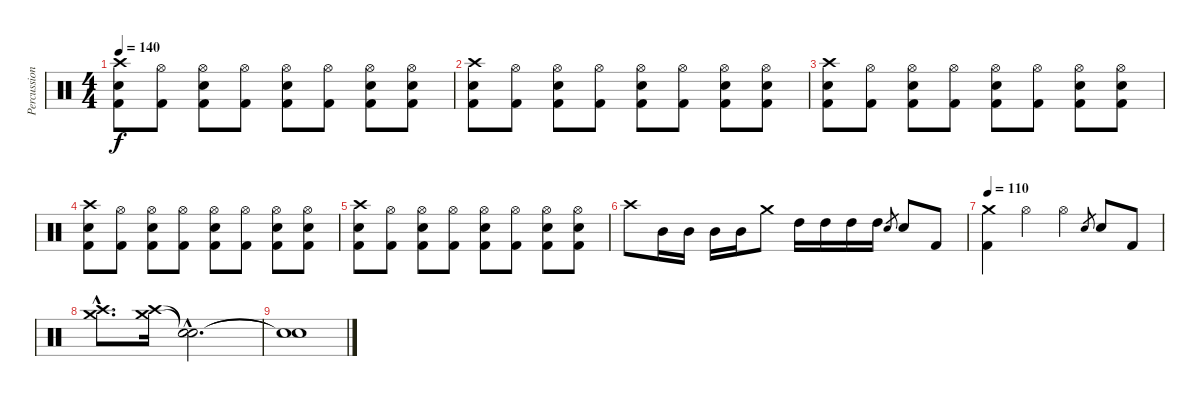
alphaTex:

\track ("Percussion" "Percussion") {instrument percussion}
\staff {score}
\articulation defaults
\ts (4 4)
\tempo 140
\clef neutral
\ks c
("Crash high (hit)" "Snare (hit) 2" "Kick (hit) 2").8{dy f} ("Hi-Hat (open)" "Kick (hit) 2").8 ("Hi-Hat (open)" "Snare (hit) 2" "Kick (hit) 2").8 ("Hi-Hat (open)" "Kick (hit) 2").8 ("Hi-Hat (open)" "Snare (hit) 2" "Kick (hit) 2").8 ("Hi-Hat (open)" "Kick (hit) 2").8 ("Hi-Hat (open)" "Snare (hit) 2" "Kick (hit) 2").8 ("Hi-Hat (open)" "Snare (hit) 2" "Kick (hit) 2").8 |
("Crash high (hit)" "Snare (hit) 2" "Kick (hit) 2").8 ("Hi-Hat (open)" "Kick (hit) 2").8 ("Hi-Hat (open)" "Snare (hit) 2" "Kick (hit) 2").8 ("Hi-Hat (open)" "Kick (hit) 2").8 ("Hi-Hat (open)" "Snare (hit) 2" "Kick (hit) 2").8 ("Hi-Hat (open)" "Kick (hit) 2").8 ("Hi-Hat (open)" "Snare (hit) 2" "Kick (hit) 2").8 ("Hi-Hat (open)" "Snare (hit) 2" "Kick (hit) 2").8 |
("Crash high (hit)" "Snare (hit) 2" "Kick (hit) 2").8 ("Hi-Hat (open)" "Kick (hit) 2").8 ("Hi-Hat (open)" "Snare (hit) 2" "Kick (hit) 2").8 ("Hi-Hat (open)" "Kick (hit) 2").8 ("Hi-Hat (open)" "Snare (hit) 2" "Kick (hit) 2").8 ("Hi-Hat (open)" "Kick (hit) 2").8 ("Hi-Hat (open)" "Snare (hit) 2" "Kick (hit) 2").8 ("Hi-Hat (open)" "Snare (hit) 2" "Kick (hit) 2").8 |
("Crash high (hit)" "Snare (hit) 2" "Kick (hit) 2").8 ("Hi-Hat (open)" "Kick (hit) 2").8 ("Hi-Hat (open)" "Snare (hit) 2" "Kick (hit) 2").8 ("Hi-Hat (open)" "Kick (hit) 2").8 ("Hi-Hat (open)" "Snare (hit) 2" "Kick (hit) 2").8 ("Hi-Hat (open)" "Kick (hit) 2").8 ("Hi-Hat (open)" "Snare (hit) 2" "Kick (hit) 2").8 ("Hi-Hat (open)" "Snare (hit) 2" "Kick (hit) 2").8 |
("Crash high (hit)" "Snare (hit) 2" "Kick (hit) 2").8 ("Hi-Hat (open)" "Kick (hit) 2").8 ("Hi-Hat (open)" "Snare (hit) 2" "Kick (hit) 2").8 ("Hi-Hat (open)" "Kick (hit) 2").8 ("Hi-Hat (open)" "Snare (hit) 2" "Kick (hit) 2").8 ("Hi-Hat (open)" "Kick (hit) 2").8 ("Hi-Hat (open)" "Snare (hit) 2" "Kick (hit) 2").8 ("Hi-Hat (open)" "Snare (hit) 2" "Kick (hit) 2").8 |
"Crash high (hit)".8 "Mid Tom (hit)".16 "Mid Tom (hit)".16 "Mid Tom (hit)".16 "Mid Tom (hit)".16 "Crash medium (hit)".8 "High Tom (hit)".16 "High Tom (hit)".16 "High Tom (hit)".16 "High Tom (hit)".16 "Snare (hit) 2".8{gr} "Snare (hit) 2".8 "Kick (hit) 2".8 |
\tempo 110
("Crash medium (hit)" "Kick (hit) 2").4 "Hi-Hat (open)".4 "Hi-Hat (open)".4 "Snare (hit) 2".8{gr} "Snare (hit) 2".8 "Kick (hit) 2".8 |
("Crash high (hit)"{hac} "Crash medium (hit)"{hac}).8{d} ("Crash high (hit)" "Crash medium (hit)").16 ("Snare (hit)"{hac t} "Snare (hit)"{hac t}).2{d} |
("Snare (hit)"{t} "Snare (hit)"{t}).1
